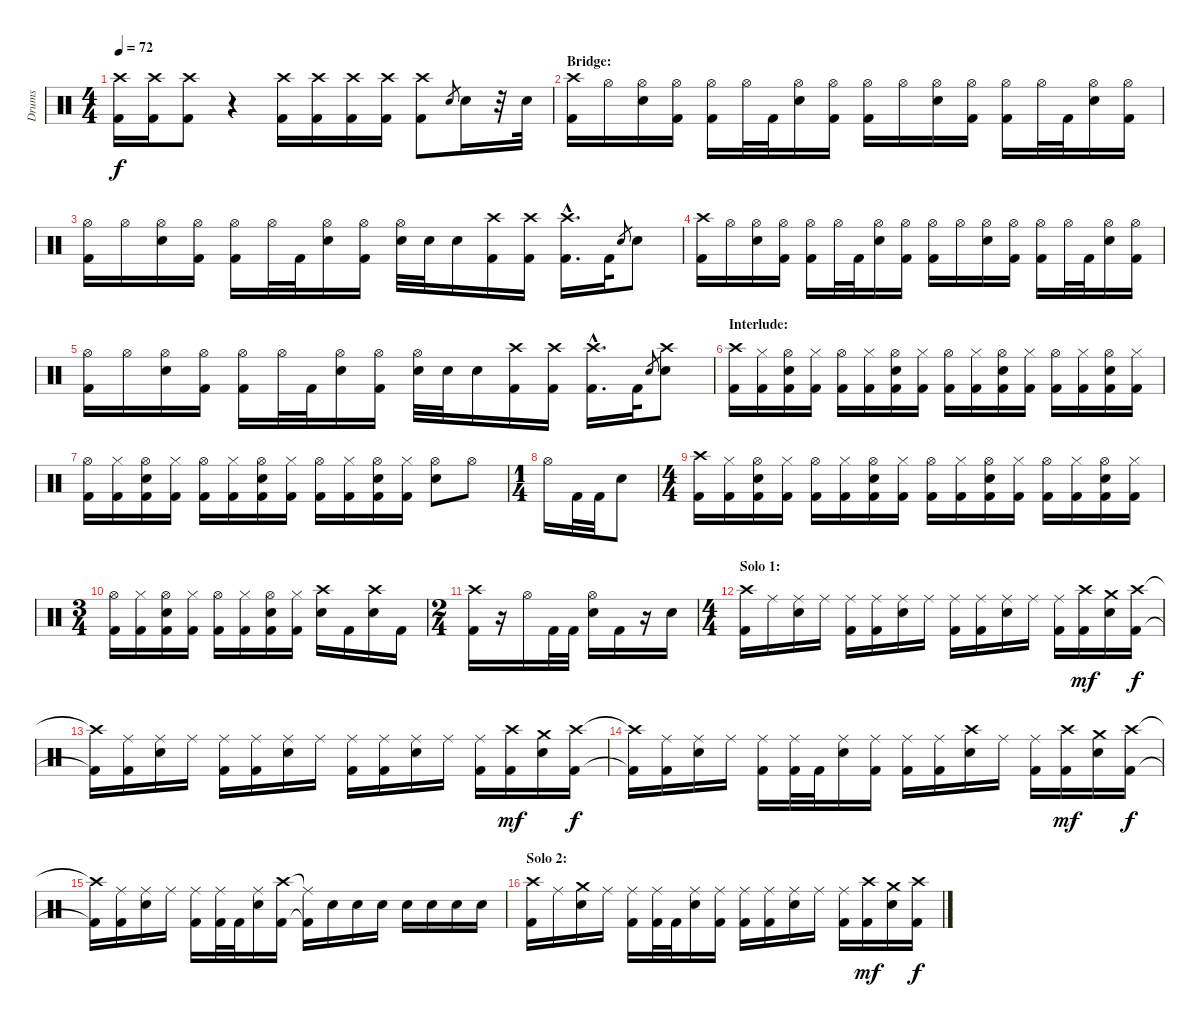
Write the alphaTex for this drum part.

\track ("Drums" "Drums") {instrument percussion}
\staff {score}
\articulation defaults
\ts (4 4)
\tempo 72
\clef neutral
\ks c
("Crash high (hit)" "Kick (hit) 2").16{dy f} ("Crash high (hit)" "Kick (hit) 2").16 ("Crash high (hit)" "Kick (hit) 2").8 r.4 ("Crash high (hit)" "Kick (hit) 2").16 ("Crash high (hit)" "Kick (hit) 2").16 ("Crash high (hit)" "Kick (hit) 2").16 ("Crash high (hit)" "Kick (hit) 2").16 ("Crash high (hit)" "Kick (hit) 2").8 "Snare (hit) 2".8{gr} "Snare (hit) 2".16 r.32 "Snare (hit) 2".32 |
\section ("" "Bridge:")
("Crash high (hit)" "Kick (hit) 2").16 "Hi-Hat (open)".16 ("Hi-Hat (open)" "Snare (hit) 2").16 ("Hi-Hat (open)" "Kick (hit) 2").16 ("Hi-Hat (open)" "Kick (hit) 2").16 "Hi-Hat (open)".32 "Kick (hit) 2".32 ("Hi-Hat (open)" "Snare (hit) 2").16 ("Hi-Hat (open)" "Kick (hit) 2").16 ("Hi-Hat (open)" "Kick (hit) 2").16 "Hi-Hat (open)".16 ("Hi-Hat (open)" "Snare (hit) 2").16 ("Hi-Hat (open)" "Kick (hit) 2").16 ("Hi-Hat (open)" "Kick (hit) 2").16 "Hi-Hat (open)".32 "Kick (hit) 2".32 ("Hi-Hat (open)" "Snare (hit) 2").16 ("Hi-Hat (open)" "Kick (hit) 2").16 |
("Hi-Hat (open)" "Kick (hit) 2").16 "Hi-Hat (open)".16 ("Hi-Hat (open)" "Snare (hit) 2").16 ("Hi-Hat (open)" "Kick (hit) 2").16 ("Hi-Hat (open)" "Kick (hit) 2").16 "Hi-Hat (open)".32 "Kick (hit) 2".32 ("Hi-Hat (open)" "Snare (hit) 2").16 ("Hi-Hat (open)" "Kick (hit) 2").16 ("Hi-Hat (open)" "Snare (hit) 2").32 "Snare (hit) 2".32 "Snare (hit) 2".16 ("Crash high (hit)" "Kick (hit) 2").16 ("Crash high (hit)" "Kick (hit) 2").16 ("Crash high (hit)"{hac} "Kick (hit) 2"{hac}).16{d} "Kick (hit) 2".32 "Snare (hit) 2".8{gr} "Snare (hit) 2".8 |
("Crash high (hit)" "Kick (hit) 2").16 "Hi-Hat (open)".16 ("Hi-Hat (open)" "Snare (hit) 2").16 ("Hi-Hat (open)" "Kick (hit) 2").16 ("Hi-Hat (open)" "Kick (hit) 2").16 "Hi-Hat (open)".32 "Kick (hit) 2".32 ("Hi-Hat (open)" "Snare (hit) 2").16 ("Hi-Hat (open)" "Kick (hit) 2").16 ("Hi-Hat (open)" "Kick (hit) 2").16 "Hi-Hat (open)".16 ("Hi-Hat (open)" "Snare (hit) 2").16 ("Hi-Hat (open)" "Kick (hit) 2").16 ("Hi-Hat (open)" "Kick (hit) 2").16 "Hi-Hat (open)".32 "Kick (hit) 2".32 ("Hi-Hat (open)" "Snare (hit) 2").16 ("Hi-Hat (open)" "Kick (hit) 2").16 |
("Hi-Hat (open)" "Kick (hit) 2").16 "Hi-Hat (open)".16 ("Hi-Hat (open)" "Snare (hit) 2").16 ("Hi-Hat (open)" "Kick (hit) 2").16 ("Hi-Hat (open)" "Kick (hit) 2").16 "Hi-Hat (open)".32 "Kick (hit) 2".32 ("Hi-Hat (open)" "Snare (hit) 2").16 ("Hi-Hat (open)" "Kick (hit) 2").16 ("Hi-Hat (open)" "Snare (hit) 2").32 "Snare (hit) 2".32 "Snare (hit) 2".16 ("Crash high (hit)" "Kick (hit) 2").16 ("Crash high (hit)" "Kick (hit) 2").16 ("Crash high (hit)"{hac} "Kick (hit) 2"{hac}).16{d} "Kick (hit) 2".32 "Snare (hit) 2".8{gr} ("Crash high (hit)" "Snare (hit) 2").8 |
\section ("" "Interlude:")
("Crash high (hit)" "Kick (hit) 2").16 ("Hi-Hat (closed)" "Kick (hit) 2").16 ("Hi-Hat (open)" "Snare (hit) 2" "Kick (hit) 2").16 ("Hi-Hat (closed)" "Kick (hit) 2").16 ("Hi-Hat (open)" "Kick (hit) 2").16 ("Hi-Hat (closed)" "Kick (hit) 2").16 ("Hi-Hat (open)" "Snare (hit) 2" "Kick (hit) 2").16 ("Hi-Hat (closed)" "Kick (hit) 2").16 ("Hi-Hat (open)" "Kick (hit) 2").16 ("Hi-Hat (closed)" "Kick (hit) 2").16 ("Hi-Hat (open)" "Snare (hit) 2" "Kick (hit) 2").16 ("Hi-Hat (closed)" "Kick (hit) 2").16 ("Hi-Hat (open)" "Kick (hit) 2").16 ("Hi-Hat (closed)" "Kick (hit) 2").16 ("Hi-Hat (open)" "Snare (hit) 2" "Kick (hit) 2").16 ("Hi-Hat (closed)" "Kick (hit) 2").16 |
("Hi-Hat (open)" "Kick (hit) 2").16 ("Hi-Hat (closed)" "Kick (hit) 2").16 ("Hi-Hat (open)" "Snare (hit) 2" "Kick (hit) 2").16 ("Hi-Hat (closed)" "Kick (hit) 2").16 ("Hi-Hat (open)" "Kick (hit) 2").16 ("Hi-Hat (closed)" "Kick (hit) 2").16 ("Hi-Hat (open)" "Snare (hit) 2" "Kick (hit) 2").16 ("Hi-Hat (closed)" "Kick (hit) 2").16 ("Hi-Hat (open)" "Kick (hit) 2").16 ("Hi-Hat (closed)" "Kick (hit) 2").16 ("Hi-Hat (open)" "Snare (hit) 2" "Kick (hit) 2").16 ("Hi-Hat (closed)" "Kick (hit) 2").16 ("Hi-Hat (open)" "Snare (hit) 2").8 "Hi-Hat (open)".8 |
\ts (1 4)
"Hi-Hat (open)".16 "Kick (hit) 2".32 "Kick (hit) 2".32 "Snare (hit) 2".8 |
\ts (4 4)
("Crash high (hit)" "Kick (hit) 2").16 ("Hi-Hat (closed)" "Kick (hit) 2").16 ("Hi-Hat (open)" "Snare (hit) 2" "Kick (hit) 2").16 ("Hi-Hat (closed)" "Kick (hit) 2").16 ("Hi-Hat (open)" "Kick (hit) 2").16 ("Hi-Hat (closed)" "Kick (hit) 2").16 ("Hi-Hat (open)" "Snare (hit) 2" "Kick (hit) 2").16 ("Hi-Hat (closed)" "Kick (hit) 2").16 ("Hi-Hat (open)" "Kick (hit) 2").16 ("Hi-Hat (closed)" "Kick (hit) 2").16 ("Hi-Hat (open)" "Snare (hit) 2" "Kick (hit) 2").16 ("Hi-Hat (closed)" "Kick (hit) 2").16 ("Hi-Hat (open)" "Kick (hit) 2").16 ("Hi-Hat (closed)" "Kick (hit) 2").16 ("Hi-Hat (open)" "Snare (hit) 2" "Kick (hit) 2").16 ("Hi-Hat (closed)" "Kick (hit) 2").16 |
\ts (3 4)
("Hi-Hat (open)" "Kick (hit) 2").16 ("Hi-Hat (closed)" "Kick (hit) 2").16 ("Hi-Hat (open)" "Snare (hit) 2" "Kick (hit) 2").16 ("Hi-Hat (closed)" "Kick (hit) 2").16 ("Hi-Hat (open)" "Kick (hit) 2").16 ("Hi-Hat (closed)" "Kick (hit) 2").16 ("Hi-Hat (open)" "Snare (hit) 2" "Kick (hit) 2").16 ("Hi-Hat (closed)" "Kick (hit) 2").16 ("Crash high (hit)" "Snare (hit) 2").16 "Kick (hit) 2".16 ("Crash high (hit)" "Snare (hit) 2").16 "Kick (hit) 2".16 |
\ts (2 4)
("Crash high (hit)" "Kick (hit) 2").16 r.16 "Hi-Hat (open)".16 "Kick (hit) 2".32 "Kick (hit) 2".32 ("Hi-Hat (open)" "Snare (hit) 2").16 "Kick (hit) 2".16 r.16 "Snare (hit) 2".16 |
\ts (4 4)
\section ("" "Solo 1:")
("Crash high (hit)" "Kick (hit) 2").16 "Ride (middle)".16 ("Ride (middle)" "Snare (hit) 2").16 "Ride (middle)".16 ("Ride (middle)" "Kick (hit) 2").16 ("Ride (middle)" "Kick (hit) 2").16 ("Ride (middle)" "Snare (hit) 2").16 "Ride (middle)".16 ("Ride (middle)" "Kick (hit) 2").16 ("Ride (middle)" "Kick (hit) 2").16 ("Ride (middle)" "Snare (hit) 2").16 "Ride (middle)".16 ("Ride (middle)" "Kick (hit) 2").16 ("Crash high (hit)" "Kick (hit) 2").16{dy mf} ("Crash medium (hit)" "Snare (hit) 2").16 ("Crash high (hit)" "Kick (hit) 2").16{dy f} |
("Crash high (hit)"{t} "Kick (hit) 2"{t}).16 ("Ride (middle)" "Kick (hit) 2").16 ("Ride (middle)" "Snare (hit) 2").16 "Ride (middle)".16 ("Ride (middle)" "Kick (hit) 2").16 ("Ride (middle)" "Kick (hit) 2").16 ("Ride (middle)" "Snare (hit) 2").16 "Ride (middle)".16 ("Ride (middle)" "Kick (hit) 2").16 ("Ride (middle)" "Kick (hit) 2").16 ("Ride (middle)" "Snare (hit) 2").16 "Ride (middle)".16 ("Ride (middle)" "Kick (hit) 2").16 ("Crash high (hit)" "Kick (hit) 2").16{dy mf} ("Crash medium (hit)" "Snare (hit) 2").16 ("Crash high (hit)" "Kick (hit) 2").16{dy f} |
("Crash high (hit)"{t} "Kick (hit) 2"{t}).16 ("Ride (middle)" "Kick (hit) 2").16 ("Ride (middle)" "Snare (hit) 2").16 "Ride (middle)".16 ("Ride (middle)" "Kick (hit) 2").16 ("Ride (middle)" "Kick (hit) 2").32 "Kick (hit) 2".32 ("Ride (middle)" "Snare (hit) 2").16 ("Ride (middle)" "Kick (hit) 2").16 ("Ride (middle)" "Kick (hit) 2").16 ("Ride (middle)" "Kick (hit) 2").16 ("Crash high (hit)" "Snare (hit) 2").16 "Ride (middle)".16 ("Ride (middle)" "Kick (hit) 2").16 ("Crash high (hit)" "Kick (hit) 2").16{dy mf} ("Crash medium (hit)" "Snare (hit) 2").16 ("Crash high (hit)" "Kick (hit) 2").16{dy f} |
("Crash high (hit)"{t} "Kick (hit) 2"{t}).16 ("Ride (middle)" "Kick (hit) 2").16 ("Ride (middle)" "Snare (hit) 2").16 "Ride (middle)".16 ("Ride (middle)" "Kick (hit) 2").16 ("Ride (middle)" "Kick (hit) 2").32 "Kick (hit) 2".32 ("Ride (middle)" "Snare (hit) 2").16 ("Crash high (hit)" "Kick (hit) 2").16 ("Ride (middle)"{t} "Kick (hit) 2"{t}).16 "Snare (hit) 2".16 "Snare (hit) 2".16 "Snare (hit) 2".16 "Snare (hit) 2".16 "Snare (hit) 2".16 "Snare (hit) 2".16 "Snare (hit) 2".16 |
\section ("" "Solo 2:")
("Crash high (hit)" "Kick (hit) 2").16 "Ride (middle)".16 ("Crash medium (hit)" "Snare (hit) 2").16 "Ride (middle)".16 ("Ride (middle)" "Kick (hit) 2").16 ("Ride (middle)" "Kick (hit) 2").32 "Kick (hit) 2".32 ("Ride (middle)" "Snare (hit) 2").16 ("Ride (middle)" "Kick (hit) 2").16 ("Ride (middle)" "Kick (hit) 2").16 ("Ride (middle)" "Kick (hit) 2").16 ("Ride (middle)" "Snare (hit) 2").16 "Ride (middle)".16 ("Ride (middle)" "Kick (hit) 2").16 ("Crash high (hit)" "Kick (hit) 2").16{dy mf} ("Crash medium (hit)" "Snare (hit) 2").16 ("Crash high (hit)" "Kick (hit) 2").16{dy f}
